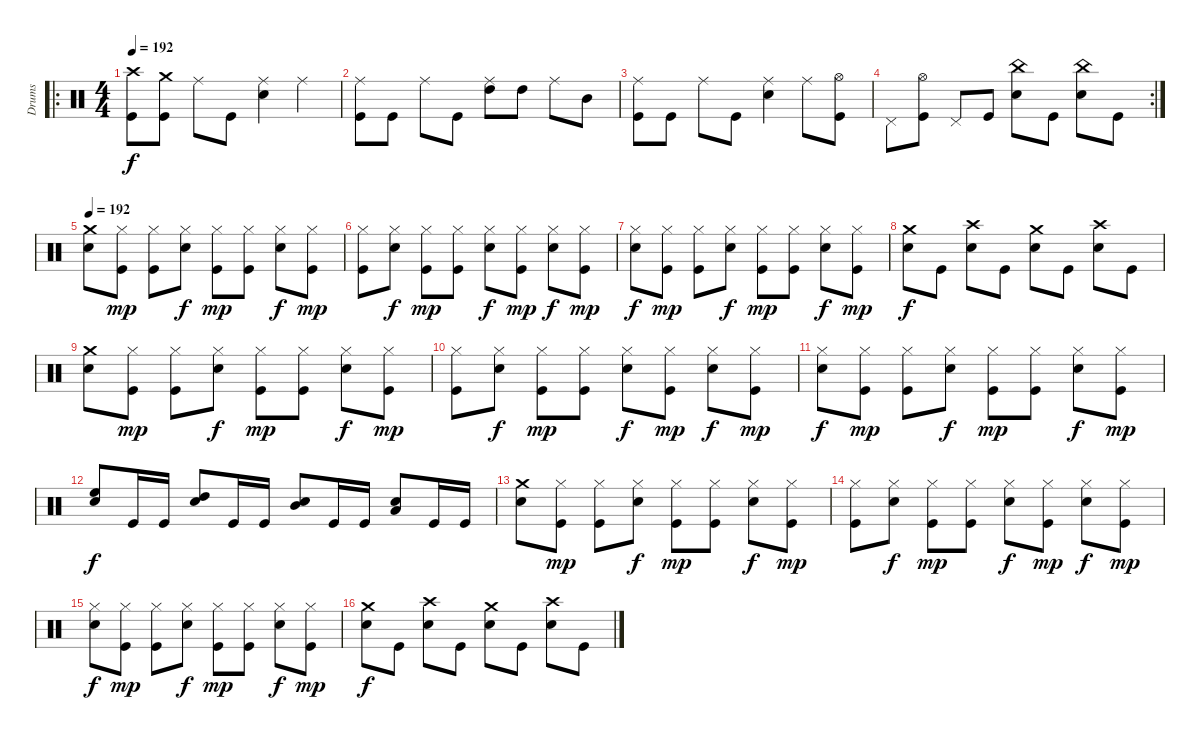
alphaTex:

\track ("Drums" "Drums") {instrument percussion}
\staff {score}
\articulation defaults
\ro
\ts (4 4)
\tempo 192
\clef neutral
\ks c
("Crash high (hit)" "Kick (hit)").8{dy f} ("Crash medium (hit)" "Kick (hit)").8 "Ride (middle)".8 "Kick (hit)".8 ("Ride (middle)" "Electric Snare (hit)").4 "Ride (middle)".4 |
("Ride (middle)" "Kick (hit)").8 "Kick (hit)".8 "Ride (middle)".8 "Kick (hit)".8 ("Ride (middle)" "High Tom (hit)").8 "High Tom (hit)".8 "Ride (middle)".8 "Mid Tom (hit)".8 |
("Ride (middle)" "Kick (hit)").8 "Kick (hit)".8 "Ride (middle)".8 "Kick (hit)".8 ("Ride (middle)" "Electric Snare (hit)").4 "Ride (middle)".8 ("Hi-Hat (open)" "Kick (hit)").8 |
\rc 2 "Pedal Hi-Hat (hit)".8
("Hi-Hat (open)" "Kick (hit)").8 "Pedal Hi-Hat (hit)".8 "Kick (hit)".8 ("China (hit)" "Electric Snare (hit)").8 "Kick (hit)".8 ("China (hit)" "Electric Snare (hit)").8 "Kick (hit)".8 |
\tempo 192
("Crash medium (hit)" "Electric Snare (hit)").8 ("Hi-Hat (closed)" "Kick (hit)").8{dy mp} ("Hi-Hat (closed)" "Kick (hit)").8 ("Hi-Hat (closed)" "Electric Snare (hit)").8{dy f} ("Hi-Hat (closed)" "Kick (hit)").8{dy mp} ("Hi-Hat (closed)" "Kick (hit)").8 ("Hi-Hat (closed)" "Electric Snare (hit)").8{dy f} ("Hi-Hat (closed)" "Kick (hit)").8{dy mp} |
("Hi-Hat (closed)" "Kick (hit)").8 ("Hi-Hat (closed)" "Electric Snare (hit)").8{dy f} ("Hi-Hat (closed)" "Kick (hit)").8{dy mp} ("Hi-Hat (closed)" "Kick (hit)").8 ("Hi-Hat (closed)" "Electric Snare (hit)").8{dy f} ("Hi-Hat (closed)" "Kick (hit)").8{dy mp} ("Hi-Hat (closed)" "Electric Snare (hit)").8{dy f} ("Hi-Hat (closed)" "Kick (hit)").8{dy mp} |
("Hi-Hat (closed)" "Electric Snare (hit)").8{dy f} ("Hi-Hat (closed)" "Kick (hit)").8{dy mp} ("Hi-Hat (closed)" "Kick (hit)").8 ("Hi-Hat (closed)" "Electric Snare (hit)").8{dy f} ("Hi-Hat (closed)" "Kick (hit)").8{dy mp} ("Hi-Hat (closed)" "Kick (hit)").8 ("Hi-Hat (closed)" "Electric Snare (hit)").8{dy f} ("Hi-Hat (closed)" "Kick (hit)").8{dy mp} |
("Crash medium (hit)" "Electric Snare (hit)").8{dy f} "Kick (hit)".8 ("Crash high (hit)" "Electric Snare (hit)").8 "Kick (hit)".8 ("Crash medium (hit)" "Electric Snare (hit)").8 "Kick (hit)".8 ("Crash high (hit)" "Electric Snare (hit)").8 "Kick (hit)".8 |
("Crash medium (hit)" "Electric Snare (hit)").8 ("Hi-Hat (closed)" "Kick (hit)").8{dy mp} ("Hi-Hat (closed)" "Kick (hit)").8 ("Hi-Hat (closed)" "Electric Snare (hit)").8{dy f} ("Hi-Hat (closed)" "Kick (hit)").8{dy mp} ("Hi-Hat (closed)" "Kick (hit)").8 ("Hi-Hat (closed)" "Electric Snare (hit)").8{dy f} ("Hi-Hat (closed)" "Kick (hit)").8{dy mp} |
("Hi-Hat (closed)" "Kick (hit)").8 ("Hi-Hat (closed)" "Electric Snare (hit)").8{dy f} ("Hi-Hat (closed)" "Kick (hit)").8{dy mp} ("Hi-Hat (closed)" "Kick (hit)").8 ("Hi-Hat (closed)" "Electric Snare (hit)").8{dy f} ("Hi-Hat (closed)" "Kick (hit)").8{dy mp} ("Hi-Hat (closed)" "Electric Snare (hit)").8{dy f} ("Hi-Hat (closed)" "Kick (hit)").8{dy mp} |
("Hi-Hat (closed)" "Electric Snare (hit)").8{dy f} ("Hi-Hat (closed)" "Kick (hit)").8{dy mp} ("Hi-Hat (closed)" "Kick (hit)").8 ("Hi-Hat (closed)" "Electric Snare (hit)").8{dy f} ("Hi-Hat (closed)" "Kick (hit)").8{dy mp} ("Hi-Hat (closed)" "Kick (hit)").8 ("Hi-Hat (closed)" "Electric Snare (hit)").8{dy f} ("Hi-Hat (closed)" "Kick (hit)").8{dy mp} |
("High Floor Tom (hit)" "Electric Snare (hit)").8{dy f} "Kick (hit)".16 "Kick (hit)".16 ("High Tom (hit)" "Electric Snare (hit)").8 "Kick (hit)".16 "Kick (hit)".16 ("Electric Snare (hit)" "Mid Tom (hit)").8 "Kick (hit)".16 "Kick (hit)".16 ("Electric Snare (hit)" "Low Tom (hit)").8 "Kick (hit)".16 "Kick (hit)".16 |
("Crash medium (hit)" "Electric Snare (hit)").8 ("Hi-Hat (closed)" "Kick (hit)").8{dy mp} ("Hi-Hat (closed)" "Kick (hit)").8 ("Hi-Hat (closed)" "Electric Snare (hit)").8{dy f} ("Hi-Hat (closed)" "Kick (hit)").8{dy mp} ("Hi-Hat (closed)" "Kick (hit)").8 ("Hi-Hat (closed)" "Electric Snare (hit)").8{dy f} ("Hi-Hat (closed)" "Kick (hit)").8{dy mp} |
("Hi-Hat (closed)" "Kick (hit)").8 ("Hi-Hat (closed)" "Electric Snare (hit)").8{dy f} ("Hi-Hat (closed)" "Kick (hit)").8{dy mp} ("Hi-Hat (closed)" "Kick (hit)").8 ("Hi-Hat (closed)" "Electric Snare (hit)").8{dy f} ("Hi-Hat (closed)" "Kick (hit)").8{dy mp} ("Hi-Hat (closed)" "Electric Snare (hit)").8{dy f} ("Hi-Hat (closed)" "Kick (hit)").8{dy mp} |
("Hi-Hat (closed)" "Electric Snare (hit)").8{dy f} ("Hi-Hat (closed)" "Kick (hit)").8{dy mp} ("Hi-Hat (closed)" "Kick (hit)").8 ("Hi-Hat (closed)" "Electric Snare (hit)").8{dy f} ("Hi-Hat (closed)" "Kick (hit)").8{dy mp} ("Hi-Hat (closed)" "Kick (hit)").8 ("Hi-Hat (closed)" "Electric Snare (hit)").8{dy f} ("Hi-Hat (closed)" "Kick (hit)").8{dy mp} |
("Crash medium (hit)" "Electric Snare (hit)").8{dy f} "Kick (hit)".8 ("Crash high (hit)" "Electric Snare (hit)").8 "Kick (hit)".8 ("Crash medium (hit)" "Electric Snare (hit)").8 "Kick (hit)".8 ("Crash high (hit)" "Electric Snare (hit)").8 "Kick (hit)".8
